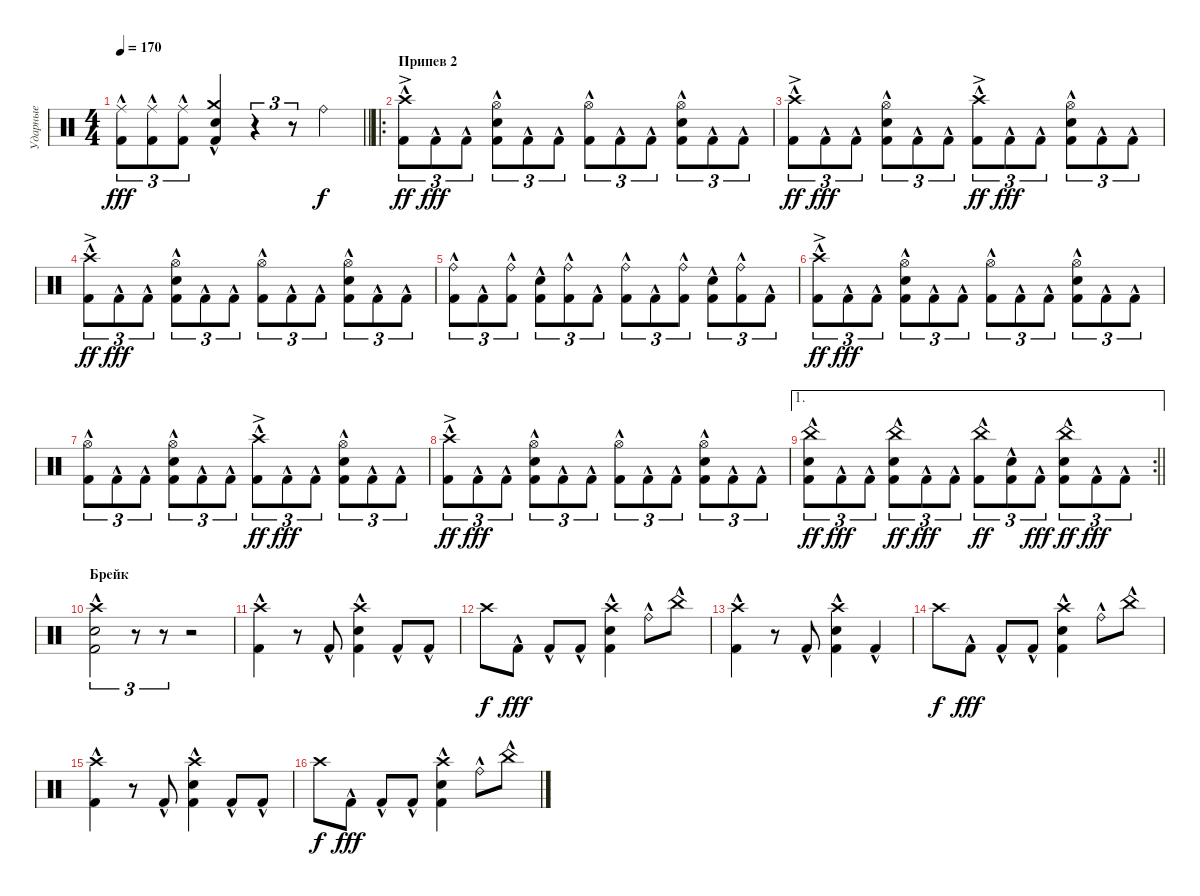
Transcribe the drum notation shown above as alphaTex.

\track ("Ударные" "Ударные") {instrument percussion}
\staff {score}
\articulation defaults
\ts (4 4)
\tempo 170
\clef neutral
\barLineRight lightlight
\ks c
("Kick (hit) 2"{hac} "Ride (middle)"{hac}).8{tu (3 2) dy fff} ("Kick (hit) 2"{hac} "Ride (middle)"{hac}).8{tu (3 2)} ("Kick (hit) 2"{hac} "Ride (middle)"{hac}).8{tu (3 2)} ("Kick (hit) 2"{hac} "Crash medium (hit)" "Snare (hit) 2").4 r.4{tu (3 2)} r.8{tu (3 2)} "Ride (bell)".4{dy f} |
\ro
\section ("" "Припев 2")
("Kick (hit) 2"{hac} "Crash high (hit)"{ac}).8{tu (3 2) dy ff} "Kick (hit) 2"{hac}.8{tu (3 2) dy fff} "Kick (hit) 2"{hac}.8{tu (3 2)} ("Kick (hit) 2"{hac} "Snare (hit) 2" "Hi-Hat (open)").8{tu (3 2)} "Kick (hit) 2"{hac}.8{tu (3 2)} "Kick (hit) 2"{hac}.8{tu (3 2)} ("Kick (hit) 2"{hac} "Hi-Hat (open)").8{tu (3 2)} "Kick (hit) 2"{hac}.8{tu (3 2)} "Kick (hit) 2"{hac}.8{tu (3 2)} ("Kick (hit) 2"{hac} "Snare (hit) 2" "Hi-Hat (open)").8{tu (3 2)} "Kick (hit) 2"{hac}.8{tu (3 2)} "Kick (hit) 2"{hac}.8{tu (3 2)} |
("Kick (hit) 2"{hac} "Crash high (hit)"{ac}).8{tu (3 2) dy ff} "Kick (hit) 2"{hac}.8{tu (3 2) dy fff} "Kick (hit) 2"{hac}.8{tu (3 2)} ("Kick (hit) 2"{hac} "Snare (hit) 2" "Hi-Hat (open)").8{tu (3 2)} "Kick (hit) 2"{hac}.8{tu (3 2)} "Kick (hit) 2"{hac}.8{tu (3 2)} ("Kick (hit) 2"{hac} "Crash high (hit)"{ac}).8{tu (3 2) dy ff} "Kick (hit) 2"{hac}.8{tu (3 2) dy fff} "Kick (hit) 2"{hac}.8{tu (3 2)} ("Kick (hit) 2"{hac} "Snare (hit) 2" "Hi-Hat (open)").8{tu (3 2)} "Kick (hit) 2"{hac}.8{tu (3 2)} "Kick (hit) 2"{hac}.8{tu (3 2)} |
("Kick (hit) 2"{hac} "Crash high (hit)"{ac}).8{tu (3 2) dy ff} "Kick (hit) 2"{hac}.8{tu (3 2) dy fff} "Kick (hit) 2"{hac}.8{tu (3 2)} ("Kick (hit) 2"{hac} "Snare (hit) 2" "Hi-Hat (open)").8{tu (3 2)} "Kick (hit) 2"{hac}.8{tu (3 2)} "Kick (hit) 2"{hac}.8{tu (3 2)} ("Kick (hit) 2"{hac} "Hi-Hat (open)").8{tu (3 2)} "Kick (hit) 2"{hac}.8{tu (3 2)} "Kick (hit) 2"{hac}.8{tu (3 2)} ("Kick (hit) 2"{hac} "Snare (hit) 2" "Hi-Hat (open)").8{tu (3 2)} "Kick (hit) 2"{hac}.8{tu (3 2)} "Kick (hit) 2"{hac}.8{tu (3 2)} |
("Kick (hit) 2"{hac} "Ride (bell)"{hac}).8{tu (3 2)} "Kick (hit) 2"{hac}.8{tu (3 2)} ("Kick (hit) 2"{hac} "Ride (bell)"{hac}).8{tu (3 2)} ("Kick (hit) 2"{hac} "Snare (hit) 2").8{tu (3 2)} ("Kick (hit) 2"{hac} "Ride (bell)"{hac}).8{tu (3 2)} "Kick (hit) 2"{hac}.8{tu (3 2)} ("Kick (hit) 2"{hac} "Ride (bell)"{hac}).8{tu (3 2)} "Kick (hit) 2"{hac}.8{tu (3 2)} ("Kick (hit) 2"{hac} "Ride (bell)"{hac}).8{tu (3 2)} ("Kick (hit) 2"{hac} "Snare (hit) 2").8{tu (3 2)} ("Kick (hit) 2"{hac} "Ride (bell)"{hac}).8{tu (3 2)} "Kick (hit) 2"{hac}.8{tu (3 2)} |
("Kick (hit) 2"{hac} "Crash high (hit)"{ac}).8{tu (3 2) dy ff} "Kick (hit) 2"{hac}.8{tu (3 2) dy fff} "Kick (hit) 2"{hac}.8{tu (3 2)} ("Kick (hit) 2"{hac} "Snare (hit) 2" "Hi-Hat (open)").8{tu (3 2)} "Kick (hit) 2"{hac}.8{tu (3 2)} "Kick (hit) 2"{hac}.8{tu (3 2)} ("Kick (hit) 2"{hac} "Hi-Hat (open)").8{tu (3 2)} "Kick (hit) 2"{hac}.8{tu (3 2)} "Kick (hit) 2"{hac}.8{tu (3 2)} ("Kick (hit) 2"{hac} "Snare (hit) 2" "Hi-Hat (open)").8{tu (3 2)} "Kick (hit) 2"{hac}.8{tu (3 2)} "Kick (hit) 2"{hac}.8{tu (3 2)} |
("Kick (hit) 2"{hac} "Hi-Hat (open)").8{tu (3 2)} "Kick (hit) 2"{hac}.8{tu (3 2)} "Kick (hit) 2"{hac}.8{tu (3 2)} ("Kick (hit) 2"{hac} "Snare (hit) 2" "Hi-Hat (open)").8{tu (3 2)} "Kick (hit) 2"{hac}.8{tu (3 2)} "Kick (hit) 2"{hac}.8{tu (3 2)} ("Kick (hit) 2"{hac} "Crash high (hit)"{ac}).8{tu (3 2) dy ff} "Kick (hit) 2"{hac}.8{tu (3 2) dy fff} "Kick (hit) 2"{hac}.8{tu (3 2)} ("Kick (hit) 2"{hac} "Snare (hit) 2" "Hi-Hat (open)").8{tu (3 2)} "Kick (hit) 2"{hac}.8{tu (3 2)} "Kick (hit) 2"{hac}.8{tu (3 2)} |
("Kick (hit) 2"{hac} "Crash high (hit)"{ac}).8{tu (3 2) dy ff} "Kick (hit) 2"{hac}.8{tu (3 2) dy fff} "Kick (hit) 2"{hac}.8{tu (3 2)} ("Kick (hit) 2"{hac} "Snare (hit) 2" "Hi-Hat (open)").8{tu (3 2)} "Kick (hit) 2"{hac}.8{tu (3 2)} "Kick (hit) 2"{hac}.8{tu (3 2)} ("Kick (hit) 2"{hac} "Hi-Hat (open)").8{tu (3 2)} "Kick (hit) 2"{hac}.8{tu (3 2)} "Kick (hit) 2"{hac}.8{tu (3 2)} ("Kick (hit) 2"{hac} "Snare (hit) 2" "Hi-Hat (open)").8{tu (3 2)} "Kick (hit) 2"{hac}.8{tu (3 2)} "Kick (hit) 2"{hac}.8{tu (3 2)} |
\ae 1
\rc 2
\barLineRight lightlight
("Kick (hit) 2"{hac} "Snare (hit) 2" "China (hit)").8{tu (3 2) dy ff} "Kick (hit) 2"{hac}.8{tu (3 2) dy fff} "Kick (hit) 2"{hac}.8{tu (3 2)} ("Kick (hit) 2"{hac} "Snare (hit) 2" "China (hit)").8{tu (3 2) dy ff} "Kick (hit) 2"{hac}.8{tu (3 2) dy fff} "Kick (hit) 2"{hac}.8{tu (3 2)} ("Kick (hit) 2"{hac} "China (hit)").8{tu (3 2) dy ff} ("Kick (hit) 2"{hac} "Snare (hit) 2").8{tu (3 2)} "Kick (hit) 2"{hac}.8{tu (3 2) dy fff} ("Kick (hit) 2"{hac} "Snare (hit) 2" "China (hit)").8{tu (3 2) dy ff} "Kick (hit) 2"{hac}.8{tu (3 2) dy fff} "Kick (hit) 2"{hac}.8{tu (3 2)} |
\section ("" "Брейк")
("Kick (hit) 2" "Snare (hit) 2" "Crash high (hit)"{hac}).2{tu (3 2)} r.8{tu (3 2)} r.8{tu (3 2)} r.2 |
("Kick (hit) 2"{hac} "Crash high (hit)").4 r.8 "Kick (hit) 2"{hac}.8 ("Kick (hit) 2"{hac} "Crash high (hit)" "Snare (hit) 2").4 "Kick (hit) 2"{hac}.8 "Kick (hit) 2"{hac}.8 |
"Crash high (hit)".8{dy f} "Kick (hit) 2"{hac}.8{dy fff} "Kick (hit) 2"{hac}.8 "Kick (hit) 2"{hac}.8 ("Kick (hit) 2"{hac} "Snare (hit) 2" "Crash high (hit)").4 "Ride (bell)"{hac}.8 "China (hit)"{hac}.8 |
("Kick (hit) 2"{hac} "Crash high (hit)").4 r.8 "Kick (hit) 2"{hac}.8 ("Kick (hit) 2"{hac} "Crash high (hit)" "Snare (hit) 2").4 "Kick (hit) 2"{hac}.4 |
"Crash high (hit)".8{dy f} "Kick (hit) 2"{hac}.8{dy fff} "Kick (hit) 2"{hac}.8 "Kick (hit) 2"{hac}.8 ("Kick (hit) 2"{hac} "Snare (hit) 2" "Crash high (hit)").4 "Ride (bell)"{hac}.8 "China (hit)"{hac}.8 |
("Kick (hit) 2"{hac} "Crash high (hit)").4 r.8 "Kick (hit) 2"{hac}.8 ("Kick (hit) 2"{hac} "Crash high (hit)" "Snare (hit) 2").4 "Kick (hit) 2"{hac}.8 "Kick (hit) 2"{hac}.8 |
"Crash high (hit)".8{dy f} "Kick (hit) 2"{hac}.8{dy fff} "Kick (hit) 2"{hac}.8 "Kick (hit) 2"{hac}.8 ("Kick (hit) 2"{hac} "Snare (hit) 2" "Crash high (hit)").4 "Ride (bell)"{hac}.8 "China (hit)"{hac}.8
